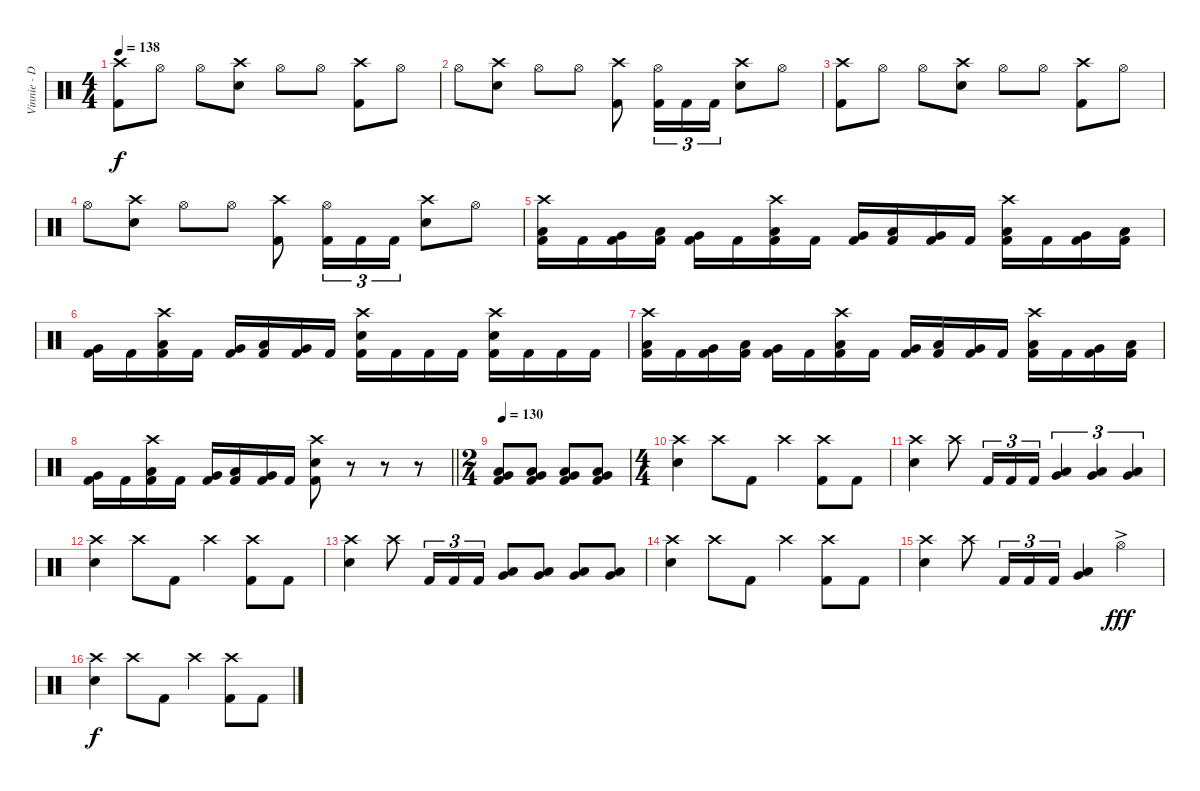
\track ("Vinnie - Drums" "Vinnie - D") {instrument percussion}
\staff {score}
\articulation defaults
\ts (4 4)
\tempo 138
\clef neutral
\ks c
("Crash high (hit)" "Kick (hit) 2").8{dy f} "Hi-Hat (open)".8 "Hi-Hat (open)".8 ("Crash high (hit)" "Snare (hit) 2").8 "Hi-Hat (open)".8 "Hi-Hat (open)".8 ("Crash high (hit)" "Kick (hit) 2").8 "Hi-Hat (open)".8 |
"Hi-Hat (open)".8 ("Crash high (hit)" "Snare (hit) 2").8 "Hi-Hat (open)".8 "Hi-Hat (open)".8 ("Crash high (hit)" "Kick (hit) 2").8 ("Hi-Hat (open)" "Kick (hit) 2").16{tu (3 2)} "Kick (hit) 2".16{tu (3 2)} "Kick (hit) 2".16{tu (3 2)} ("Crash high (hit)" "Snare (hit) 2").8 "Hi-Hat (open)".8 |
("Crash high (hit)" "Kick (hit) 2").8 "Hi-Hat (open)".8 "Hi-Hat (open)".8 ("Crash high (hit)" "Snare (hit) 2").8 "Hi-Hat (open)".8 "Hi-Hat (open)".8 ("Crash high (hit)" "Kick (hit) 2").8 "Hi-Hat (open)".8 |
"Hi-Hat (open)".8 ("Crash high (hit)" "Snare (hit) 2").8 "Hi-Hat (open)".8 "Hi-Hat (open)".8 ("Crash high (hit)" "Kick (hit) 2").8 ("Hi-Hat (open)" "Kick (hit) 2").16{tu (3 2)} "Kick (hit) 2".16{tu (3 2)} "Kick (hit) 2".16{tu (3 2)} ("Crash high (hit)" "Snare (hit) 2").8 "Hi-Hat (open)".8 |
("Crash high (hit)" "Low Tom (hit)" "Kick (hit) 2").16 "Kick (hit) 2".16 ("Very Low Tom (hit)" "Kick (hit) 2").16 ("Low Tom (hit)" "Kick (hit) 2").16 ("Very Low Tom (hit)" "Kick (hit) 2").16 "Kick (hit) 2".16 ("Crash high (hit)" "Low Tom (hit)" "Kick (hit) 2").16 "Kick (hit) 2".16 ("Very Low Tom (hit)" "Kick (hit) 2").16 ("Low Tom (hit)" "Kick (hit) 2").16 ("Very Low Tom (hit)" "Kick (hit) 2").16 "Kick (hit) 2".16 ("Crash high (hit)" "Low Tom (hit)" "Kick (hit) 2").16 "Kick (hit) 2".16 ("Very Low Tom (hit)" "Kick (hit) 2").16 ("Low Tom (hit)" "Kick (hit) 2").16 |
("Very Low Tom (hit)" "Kick (hit) 2").16 "Kick (hit) 2".16 ("Crash high (hit)" "Low Tom (hit)" "Kick (hit) 2").16 "Kick (hit) 2".16 ("Very Low Tom (hit)" "Kick (hit) 2").16 ("Low Tom (hit)" "Kick (hit) 2").16 ("Very Low Tom (hit)" "Kick (hit) 2").16 "Kick (hit) 2".16 ("Crash high (hit)" "Snare (hit) 2" "Kick (hit) 2").16 "Kick (hit) 2".16 "Kick (hit) 2".16 "Kick (hit) 2".16 ("Crash high (hit)" "Snare (hit) 2" "Kick (hit) 2").16 "Kick (hit) 2".16 "Kick (hit) 2".16 "Kick (hit) 2".16 |
("Crash high (hit)" "Low Tom (hit)" "Kick (hit) 2").16 "Kick (hit) 2".16 ("Very Low Tom (hit)" "Kick (hit) 2").16 ("Low Tom (hit)" "Kick (hit) 2").16 ("Very Low Tom (hit)" "Kick (hit) 2").16 "Kick (hit) 2".16 ("Crash high (hit)" "Low Tom (hit)" "Kick (hit) 2").16 "Kick (hit) 2".16 ("Very Low Tom (hit)" "Kick (hit) 2").16 ("Low Tom (hit)" "Kick (hit) 2").16 ("Very Low Tom (hit)" "Kick (hit) 2").16 "Kick (hit) 2".16 ("Crash high (hit)" "Low Tom (hit)" "Kick (hit) 2").16 "Kick (hit) 2".16 ("Very Low Tom (hit)" "Kick (hit) 2").16 ("Low Tom (hit)" "Kick (hit) 2").16 |
\barLineRight lightlight
("Very Low Tom (hit)" "Kick (hit) 2").16 "Kick (hit) 2".16 ("Crash high (hit)" "Low Tom (hit)" "Kick (hit) 2").16 "Kick (hit) 2".16 ("Very Low Tom (hit)" "Kick (hit) 2").16 ("Low Tom (hit)" "Kick (hit) 2").16 ("Very Low Tom (hit)" "Kick (hit) 2").16 "Kick (hit) 2".16 ("Crash high (hit)" "Snare (hit) 2" "Kick (hit) 2").8 r.8{volume 0} r.8 r.8{volume 16} |
\ts (2 4)
\tempo 130
("Low Tom (hit)" "Very Low Tom (hit)" "Kick (hit) 2").8 ("Low Tom (hit)" "Very Low Tom (hit)" "Kick (hit) 2").8 ("Low Tom (hit)" "Very Low Tom (hit)" "Kick (hit) 2").8 ("Low Tom (hit)" "Very Low Tom (hit)" "Kick (hit) 2").8 |
\ts (4 4)
("Crash high (hit)" "Snare (hit) 2").4 "Crash high (hit)".8 "Kick (hit) 2".8 "Crash high (hit)".4 ("Crash high (hit)" "Kick (hit) 2").8 "Kick (hit) 2".8 |
("Crash high (hit)" "Snare (hit) 2").4 "Crash high (hit)".8 "Kick (hit) 2".16{tu (3 2)} "Kick (hit) 2".16{tu (3 2)} "Kick (hit) 2".16{tu (3 2)} ("Low Tom (hit)" "Very Low Tom (hit)").4{tu (3 2)} ("Low Tom (hit)" "Very Low Tom (hit)").4{tu (3 2)} ("Low Tom (hit)" "Very Low Tom (hit)").4{tu (3 2)} |
("Crash high (hit)" "Snare (hit) 2").4 "Crash high (hit)".8 "Kick (hit) 2".8 "Crash high (hit)".4 ("Crash high (hit)" "Kick (hit) 2").8 "Kick (hit) 2".8 |
("Crash high (hit)" "Snare (hit) 2").4 "Crash high (hit)".8 "Kick (hit) 2".16{tu (3 2)} "Kick (hit) 2".16{tu (3 2)} "Kick (hit) 2".16{tu (3 2)} ("Low Tom (hit)" "Very Low Tom (hit)").8 ("Low Tom (hit)" "Very Low Tom (hit)").8 ("Low Tom (hit)" "Very Low Tom (hit)").8 ("Low Tom (hit)" "Very Low Tom (hit)").8 |
("Crash high (hit)" "Snare (hit) 2").4 "Crash high (hit)".8 "Kick (hit) 2".8 "Crash high (hit)".4 ("Crash high (hit)" "Kick (hit) 2").8 "Kick (hit) 2".8 |
("Crash high (hit)" "Snare (hit) 2").4 "Crash high (hit)".8 "Kick (hit) 2".16{tu (3 2)} "Kick (hit) 2".16{tu (3 2)} "Kick (hit) 2".16{tu (3 2)} ("Low Tom (hit)" "Very Low Tom (hit)").4 "Hi-Hat (open)"{ac}.4{dy fff} |
("Crash high (hit)" "Snare (hit) 2").4{dy f} "Crash high (hit)".8 "Kick (hit) 2".8 "Crash high (hit)".4 ("Crash high (hit)" "Kick (hit) 2").8 "Kick (hit) 2".8
